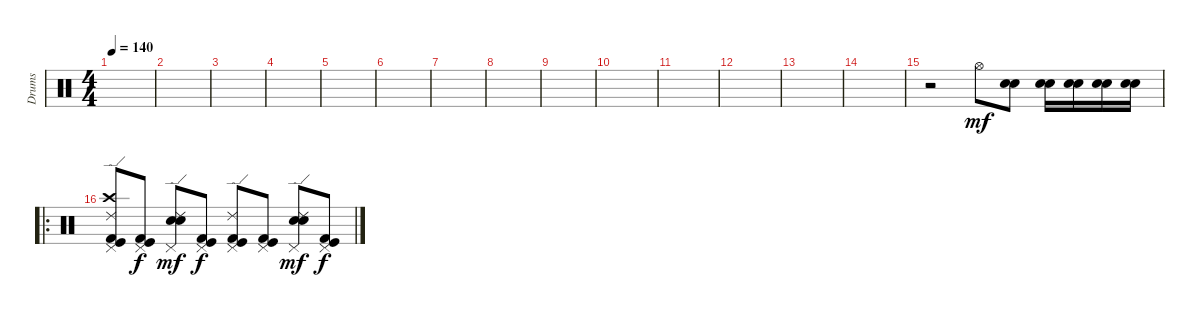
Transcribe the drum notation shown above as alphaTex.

\track ("Drums" "Drums") {instrument percussion}
\staff {score}
\articulation defaults
\ts (4 4)
\tempo 140
\clef neutral
\ks c
|
|
|
|
|
|
|
|
|
|
|
|
|
|
r.2 "Hi-Hat (open)".8{dy mf} ("Electric Snare (hit)" "Snare (hit) 2").8 ("Electric Snare (hit)" "Snare (hit) 2").16 ("Electric Snare (hit)" "Snare (hit) 2").16 ("Electric Snare (hit)" "Snare (hit) 2").16 ("Electric Snare (hit)" "Snare (hit) 2").16 |
\ro
("Pedal Hi-Hat (hit)" "Crash high (hit)" "Ride (edge) 2" "Kick (hit)" "Kick (hit) 2").8 ("Pedal Hi-Hat (hit)" "Kick (hit)" "Kick (hit) 2").8{dy f} ("Pedal Hi-Hat (hit)" "Snare (hit) 2" "Snare (hit) 2" "Ride (edge) 2").8{dy mf} ("Pedal Hi-Hat (hit)" "Kick (hit)" "Kick (hit) 2").8{dy f} ("Pedal Hi-Hat (hit)" "Ride (edge) 2" "Kick (hit)" "Kick (hit) 2").8 ("Pedal Hi-Hat (hit)" "Kick (hit)" "Kick (hit) 2").8 ("Pedal Hi-Hat (hit)" "Snare (hit) 2" "Snare (hit) 2" "Ride (edge) 2").8{dy mf} ("Pedal Hi-Hat (hit)" "Kick (hit)" "Kick (hit) 2").8{dy f}
